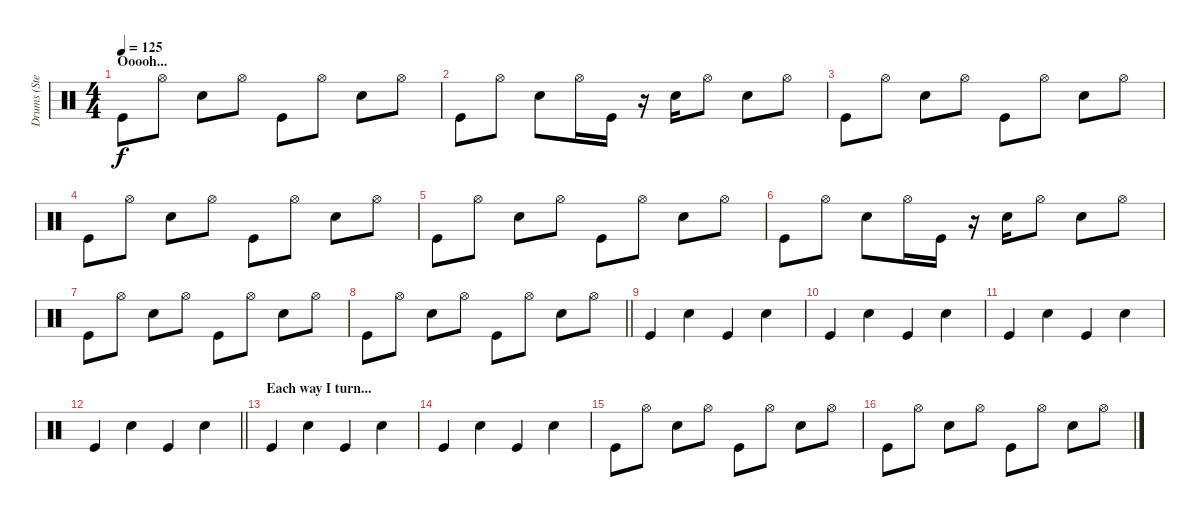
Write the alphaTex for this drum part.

\track ("Drums (Steve)" "Drums (Ste") {instrument percussion}
\staff {score}
\articulation defaults
\ts (4 4)
\section ("" "Ooooh...")
\tempo 125
\clef neutral
\ks c "Kick (hit)".8{dy f volume 13} "Hi-Hat (open)".8 "Electric Snare (hit)".8 "Hi-Hat (open)".8 "Kick (hit)".8 "Hi-Hat (open)".8 "Electric Snare (hit)".8 "Hi-Hat (open)".8
|
"Kick (hit)".8 "Hi-Hat (open)".8 "Electric Snare (hit)".8 "Hi-Hat (open)".16 "Kick (hit)".16 r.16 "Electric Snare (hit)".16 "Hi-Hat (open)".8 "Electric Snare (hit)".8 "Hi-Hat (open)".8 |
"Kick (hit)".8 "Hi-Hat (open)".8 "Electric Snare (hit)".8 "Hi-Hat (open)".8 "Kick (hit)".8 "Hi-Hat (open)".8 "Electric Snare (hit)".8 "Hi-Hat (open)".8 |
"Kick (hit)".8 "Hi-Hat (open)".8 "Electric Snare (hit)".8 "Hi-Hat (open)".8 "Kick (hit)".8 "Hi-Hat (open)".8 "Electric Snare (hit)".8 "Hi-Hat (open)".8 |
"Kick (hit)".8 "Hi-Hat (open)".8 "Electric Snare (hit)".8 "Hi-Hat (open)".8 "Kick (hit)".8 "Hi-Hat (open)".8 "Electric Snare (hit)".8 "Hi-Hat (open)".8 |
"Kick (hit)".8 "Hi-Hat (open)".8 "Electric Snare (hit)".8 "Hi-Hat (open)".16 "Kick (hit)".16 r.16 "Electric Snare (hit)".16 "Hi-Hat (open)".8 "Electric Snare (hit)".8 "Hi-Hat (open)".8 |
"Kick (hit)".8 "Hi-Hat (open)".8 "Electric Snare (hit)".8 "Hi-Hat (open)".8 "Kick (hit)".8 "Hi-Hat (open)".8 "Electric Snare (hit)".8 "Hi-Hat (open)".8 |
\barLineRight lightlight "Kick (hit)".8 "Hi-Hat (open)".8 "Electric Snare (hit)".8 "Hi-Hat (open)".8 "Kick (hit)".8 "Hi-Hat (open)".8 "Electric Snare (hit)".8 "Hi-Hat (open)".8
|
"Kick (hit)".4 "Electric Snare (hit)".4 "Kick (hit)".4 "Electric Snare (hit)".4 |
"Kick (hit)".4 "Electric Snare (hit)".4 "Kick (hit)".4 "Electric Snare (hit)".4 |
"Kick (hit)".4 "Electric Snare (hit)".4 "Kick (hit)".4 "Electric Snare (hit)".4 |
\barLineRight lightlight "Kick (hit)".4 "Electric Snare (hit)".4 "Kick (hit)".4 "Electric Snare (hit)".4
|
\section ("" "Each way I turn...")
"Kick (hit)".4 "Electric Snare (hit)".4 "Kick (hit)".4 "Electric Snare (hit)".4 |
"Kick (hit)".4 "Electric Snare (hit)".4 "Kick (hit)".4 "Electric Snare (hit)".4 |
"Kick (hit)".8 "Hi-Hat (open)".8 "Electric Snare (hit)".8 "Hi-Hat (open)".8 "Kick (hit)".8 "Hi-Hat (open)".8 "Electric Snare (hit)".8 "Hi-Hat (open)".8 |
"Kick (hit)".8 "Hi-Hat (open)".8 "Electric Snare (hit)".8 "Hi-Hat (open)".8 "Kick (hit)".8 "Hi-Hat (open)".8 "Electric Snare (hit)".8 "Hi-Hat (open)".8
